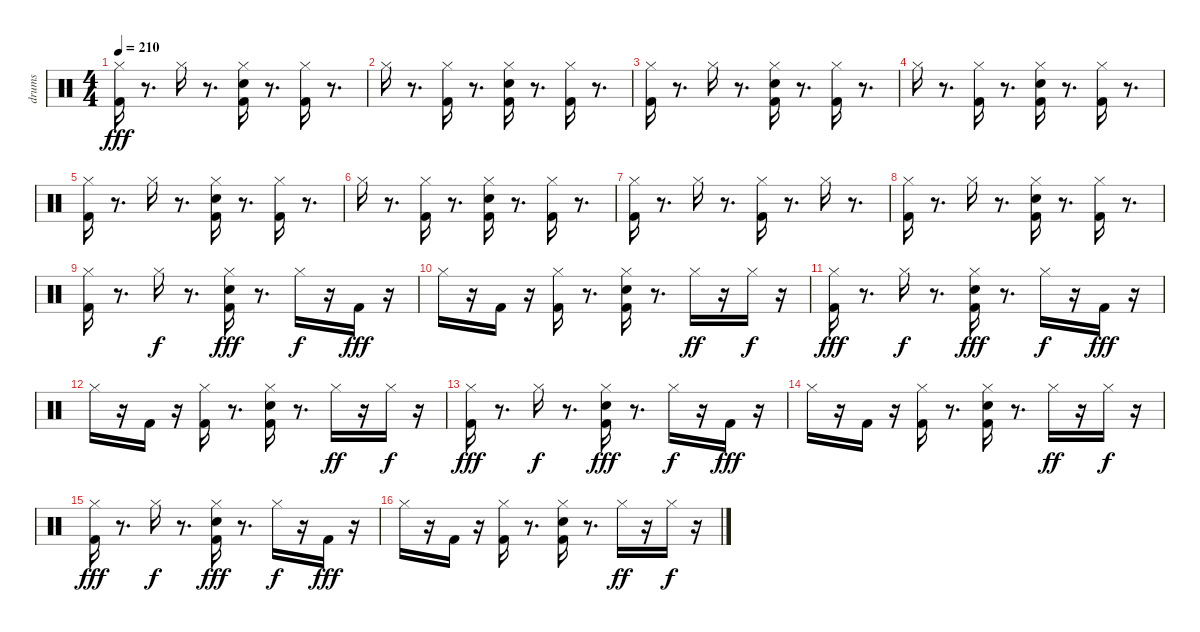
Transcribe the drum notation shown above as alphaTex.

\track ("drums" "drums") {instrument percussion}
\staff {score}
\articulation defaults
\ts (4 4)
\tempo 210
\clef neutral
\ks c
("Hi-Hat (closed)" "Kick (hit) 2").16{dy fff} r.8{d} "Hi-Hat (closed)".16 r.8{d} ("Hi-Hat (closed)" "Electric Snare (hit)" "Kick (hit) 2").16 r.8{d} ("Hi-Hat (closed)" "Kick (hit) 2").16 r.8{d} |
"Hi-Hat (closed)".16 r.8{d} ("Hi-Hat (closed)" "Kick (hit) 2").16 r.8{d} ("Hi-Hat (closed)" "Electric Snare (hit)" "Kick (hit) 2").16 r.8{d} ("Hi-Hat (closed)" "Kick (hit) 2").16 r.8{d} |
("Kick (hit) 2" "Hi-Hat (closed)").16 r.8{d} "Hi-Hat (closed)".16 r.8{d} ("Hi-Hat (closed)" "Electric Snare (hit)" "Kick (hit) 2").16 r.8{d} ("Hi-Hat (closed)" "Kick (hit) 2").16 r.8{d} |
"Hi-Hat (closed)".16 r.8{d} ("Hi-Hat (closed)" "Kick (hit) 2").16 r.8{d} ("Hi-Hat (closed)" "Electric Snare (hit)" "Kick (hit) 2").16 r.8{d} ("Hi-Hat (closed)" "Kick (hit) 2").16 r.8{d} |
("Kick (hit) 2" "Hi-Hat (closed)").16 r.8{d} "Hi-Hat (closed)".16 r.8{d} ("Hi-Hat (closed)" "Electric Snare (hit)" "Kick (hit) 2").16 r.8{d} ("Hi-Hat (closed)" "Kick (hit) 2").16 r.8{d} |
"Hi-Hat (closed)".16 r.8{d} ("Hi-Hat (closed)" "Kick (hit) 2").16 r.8{d} ("Hi-Hat (closed)" "Electric Snare (hit)" "Kick (hit) 2").16 r.8{d} ("Hi-Hat (closed)" "Kick (hit) 2").16 r.8{d} |
("Kick (hit) 2" "Hi-Hat (closed)").16 r.8{d} "Hi-Hat (closed)".16 r.8{d} ("Hi-Hat (closed)" "Kick (hit) 2").16 r.8{d} "Hi-Hat (closed)".16 r.8{d} |
("Hi-Hat (closed)" "Kick (hit) 2").16 r.8{d} "Hi-Hat (closed)".16 r.8{d} ("Hi-Hat (closed)" "Electric Snare (hit)" "Kick (hit) 2").16 r.8{d} ("Hi-Hat (closed)" "Kick (hit) 2").16 r.8{d} |
("Hi-Hat (closed)" "Kick (hit) 2").16 r.8{d} "Hi-Hat (closed)".16{dy f} r.8{d} ("Electric Snare (hit)" "Hi-Hat (closed)" "Kick (hit) 2").16{dy fff} r.8{d} "Hi-Hat (closed)".16{dy f} r.16 "Kick (hit) 2".16{dy fff} r.16 |
"Hi-Hat (closed)".16 r.16 "Kick (hit) 2".16 r.16 ("Hi-Hat (closed)" "Kick (hit) 2").16 r.8{d} ("Electric Snare (hit)" "Hi-Hat (closed)" "Kick (hit) 2").16 r.8{d} "Hi-Hat (closed)".16{dy ff} r.16 "Hi-Hat (closed)".16{dy f} r.16 |
("Hi-Hat (closed)" "Kick (hit) 2").16{dy fff} r.8{d} "Hi-Hat (closed)".16{dy f} r.8{d} ("Electric Snare (hit)" "Hi-Hat (closed)" "Kick (hit) 2").16{dy fff} r.8{d} "Hi-Hat (closed)".16{dy f} r.16 "Kick (hit) 2".16{dy fff} r.16 |
"Hi-Hat (closed)".16 r.16 "Kick (hit) 2".16 r.16 ("Hi-Hat (closed)" "Kick (hit) 2").16 r.8{d} ("Electric Snare (hit)" "Hi-Hat (closed)" "Kick (hit) 2").16 r.8{d} "Hi-Hat (closed)".16{dy ff} r.16 "Hi-Hat (closed)".16{dy f} r.16 |
("Hi-Hat (closed)" "Kick (hit) 2").16{dy fff} r.8{d} "Hi-Hat (closed)".16{dy f} r.8{d} ("Electric Snare (hit)" "Hi-Hat (closed)" "Kick (hit) 2").16{dy fff} r.8{d} "Hi-Hat (closed)".16{dy f} r.16 "Kick (hit) 2".16{dy fff} r.16 |
"Hi-Hat (closed)".16 r.16 "Kick (hit) 2".16 r.16 ("Hi-Hat (closed)" "Kick (hit) 2").16 r.8{d} ("Electric Snare (hit)" "Hi-Hat (closed)" "Kick (hit) 2").16 r.8{d} "Hi-Hat (closed)".16{dy ff} r.16 "Hi-Hat (closed)".16{dy f} r.16 |
("Hi-Hat (closed)" "Kick (hit) 2").16{dy fff} r.8{d} "Hi-Hat (closed)".16{dy f} r.8{d} ("Electric Snare (hit)" "Hi-Hat (closed)" "Kick (hit) 2").16{dy fff} r.8{d} "Hi-Hat (closed)".16{dy f} r.16 "Kick (hit) 2".16{dy fff} r.16 |
"Hi-Hat (closed)".16 r.16 "Kick (hit) 2".16 r.16 ("Hi-Hat (closed)" "Kick (hit) 2").16 r.8{d} ("Electric Snare (hit)" "Hi-Hat (closed)" "Kick (hit) 2").16 r.8{d} "Hi-Hat (closed)".16{dy ff} r.16 "Hi-Hat (closed)".16{dy f} r.16
